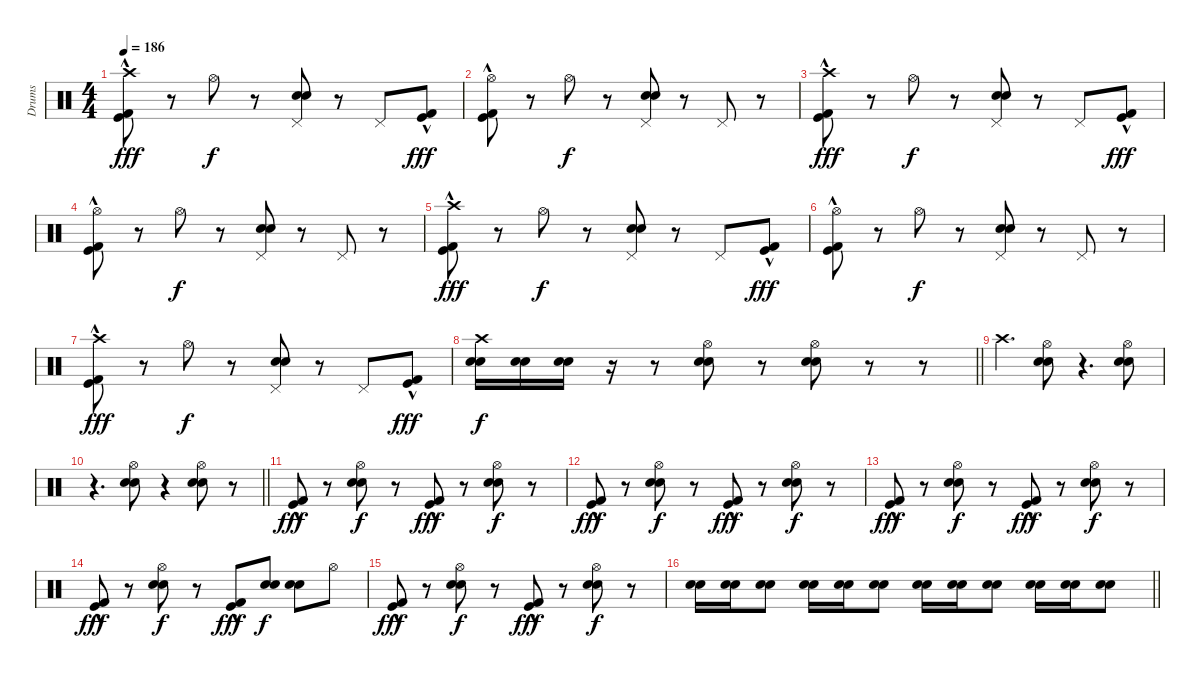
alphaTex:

\track ("Drums" "Drums") {instrument percussion}
\staff {score}
\articulation defaults
\ts (4 4)
\tempo 186
\clef neutral
\ks c
("Crash high (hit)" "Kick (hit)"{hac} "Kick (hit) 2"{hac}).8{dy fff} r.8 "Hi-Hat (open)".8{dy f} r.8 ("Pedal Hi-Hat (hit)" "Snare (hit) 2" "Snare (hit) 2").8 r.8 "Pedal Hi-Hat (hit)".8 ("Kick (hit)"{hac} "Kick (hit) 2"{hac}).8{dy fff} |
("Hi-Hat (open)" "Kick (hit)"{hac} "Kick (hit) 2"{hac}).8 r.8 "Hi-Hat (open)".8{dy f} r.8 ("Pedal Hi-Hat (hit)" "Snare (hit) 2" "Snare (hit) 2").8 r.8 "Pedal Hi-Hat (hit)".8 r.8 |
("Crash high (hit)" "Kick (hit)"{hac} "Kick (hit) 2"{hac}).8{dy fff} r.8 "Hi-Hat (open)".8{dy f} r.8 ("Pedal Hi-Hat (hit)" "Snare (hit) 2" "Snare (hit) 2").8 r.8 "Pedal Hi-Hat (hit)".8 ("Kick (hit)"{hac} "Kick (hit) 2"{hac}).8{dy fff} |
("Hi-Hat (open)" "Kick (hit)"{hac} "Kick (hit) 2"{hac}).8 r.8 "Hi-Hat (open)".8{dy f} r.8 ("Pedal Hi-Hat (hit)" "Snare (hit) 2" "Snare (hit) 2").8 r.8 "Pedal Hi-Hat (hit)".8 r.8 |
("Crash high (hit)" "Kick (hit)"{hac} "Kick (hit) 2"{hac}).8{dy fff} r.8 "Hi-Hat (open)".8{dy f} r.8 ("Pedal Hi-Hat (hit)" "Snare (hit) 2" "Snare (hit) 2").8 r.8 "Pedal Hi-Hat (hit)".8 ("Kick (hit)"{hac} "Kick (hit) 2"{hac}).8{dy fff} |
("Hi-Hat (open)" "Kick (hit)"{hac} "Kick (hit) 2"{hac}).8 r.8 "Hi-Hat (open)".8{dy f} r.8 ("Pedal Hi-Hat (hit)" "Snare (hit) 2" "Snare (hit) 2").8 r.8 "Pedal Hi-Hat (hit)".8 r.8 |
("Crash high (hit)" "Kick (hit)"{hac} "Kick (hit) 2"{hac}).8{dy fff} r.8 "Hi-Hat (open)".8{dy f} r.8 ("Pedal Hi-Hat (hit)" "Snare (hit) 2" "Snare (hit) 2").8 r.8 "Pedal Hi-Hat (hit)".8 ("Kick (hit)"{hac} "Kick (hit) 2"{hac}).8{dy fff} |
\barLineRight lightlight
("Crash high (hit)" "Snare (hit) 2" "Snare (hit) 2").16{dy f} ("Snare (hit) 2" "Snare (hit) 2").16 ("Snare (hit) 2" "Snare (hit) 2").16 r.16 r.8 ("Hi-Hat (open)" "Snare (hit) 2" "Snare (hit) 2").8 r.8 ("Hi-Hat (open)" "Snare (hit) 2" "Snare (hit) 2").8 r.8 r.8 |
"Crash high (hit)".4{d} ("Hi-Hat (open)" "Snare (hit) 2" "Snare (hit) 2").8 r.4{d} ("Hi-Hat (open)" "Snare (hit) 2" "Snare (hit) 2").8 |
\barLineRight lightlight
r.4{d} ("Hi-Hat (open)" "Snare (hit) 2" "Snare (hit) 2").8 r.4 ("Hi-Hat (open)" "Snare (hit) 2" "Snare (hit) 2").8 r.8 |
("Kick (hit)"{hac} "Kick (hit) 2"{hac}).8{dy fff} r.8 ("Hi-Hat (open)" "Snare (hit) 2" "Snare (hit) 2").8{dy f} r.8 ("Kick (hit)"{hac} "Kick (hit) 2"{hac}).8{dy fff} r.8 ("Hi-Hat (open)" "Snare (hit) 2" "Snare (hit) 2").8{dy f} r.8 |
("Kick (hit)"{hac} "Kick (hit) 2"{hac}).8{dy fff} r.8 ("Hi-Hat (open)" "Snare (hit) 2" "Snare (hit) 2").8{dy f} r.8 ("Kick (hit)"{hac} "Kick (hit) 2"{hac}).8{dy fff} r.8 ("Hi-Hat (open)" "Snare (hit) 2" "Snare (hit) 2").8{dy f} r.8 |
("Kick (hit)"{hac} "Kick (hit) 2"{hac}).8{dy fff} r.8 ("Hi-Hat (open)" "Snare (hit) 2" "Snare (hit) 2").8{dy f} r.8 ("Kick (hit)"{hac} "Kick (hit) 2"{hac}).8{dy fff} r.8 ("Hi-Hat (open)" "Snare (hit) 2" "Snare (hit) 2").8{dy f} r.8 |
("Kick (hit)"{hac} "Kick (hit) 2"{hac}).8{dy fff} r.8 ("Hi-Hat (open)" "Snare (hit) 2" "Snare (hit) 2").8{dy f} r.8 ("Kick (hit)"{hac} "Kick (hit) 2"{hac}).8{dy fff} ("Snare (hit) 2" "Snare (hit) 2").8{dy f} ("Snare (hit) 2" "Snare (hit) 2").8 "Hi-Hat (open)".8 |
("Kick (hit)"{hac} "Kick (hit) 2"{hac}).8{dy fff} r.8 ("Hi-Hat (open)" "Snare (hit) 2" "Snare (hit) 2").8{dy f} r.8 ("Kick (hit)"{hac} "Kick (hit) 2"{hac}).8{dy fff} r.8 ("Hi-Hat (open)" "Snare (hit) 2" "Snare (hit) 2").8{dy f} r.8 |
\barLineRight lightlight
("Snare (hit) 2" "Snare (hit) 2").16 ("Snare (hit) 2" "Snare (hit) 2").16 ("Snare (hit) 2" "Snare (hit) 2").8 ("Snare (hit) 2" "Snare (hit) 2").16 ("Snare (hit) 2" "Snare (hit) 2").16 ("Snare (hit) 2" "Snare (hit) 2").8 ("Snare (hit) 2" "Snare (hit) 2").16 ("Snare (hit) 2" "Snare (hit) 2").16 ("Snare (hit) 2" "Snare (hit) 2").8 ("Snare (hit) 2" "Snare (hit) 2").16 ("Snare (hit) 2" "Snare (hit) 2").16 ("Snare (hit) 2" "Snare (hit) 2").8
